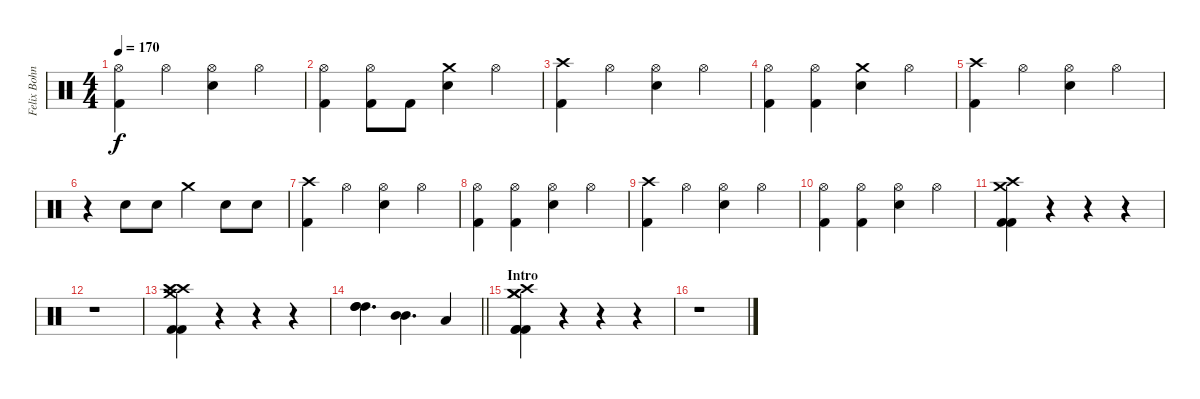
\track ("Felix Bohnke - Drums" "Felix Bohn") {instrument percussion}
\staff {score}
\articulation defaults
\ts (4 4)
\tempo 170
\clef neutral
\ks c
("Hi-Hat (open)" "Kick (hit) 2").4{dy f} "Hi-Hat (open)".4 ("Hi-Hat (open)" "Snare (hit) 2").4 "Hi-Hat (open)".4 |
("Hi-Hat (open)" "Kick (hit) 2").4 ("Hi-Hat (open)" "Kick (hit) 2").8 "Kick (hit) 2".8 ("Crash medium (hit)" "Snare (hit) 2").4 "Hi-Hat (open)".4 |
("Crash high (hit)" "Kick (hit) 2").4 "Hi-Hat (open)".4 ("Hi-Hat (open)" "Snare (hit) 2").4 "Hi-Hat (open)".4 |
("Hi-Hat (open)" "Kick (hit) 2").4 ("Hi-Hat (open)" "Kick (hit) 2").4 ("Crash medium (hit)" "Snare (hit) 2").4 "Hi-Hat (open)".4 |
("Crash high (hit)" "Kick (hit) 2").4 "Hi-Hat (open)".4 ("Hi-Hat (open)" "Snare (hit) 2").4 "Hi-Hat (open)".4 |
r.4 "Snare (hit) 2".8 "Snare (hit) 2".8 "Crash medium (hit)".4 "Snare (hit) 2".8 "Snare (hit) 2".8 |
("Crash high (hit)" "Kick (hit) 2").4 "Hi-Hat (open)".4 ("Hi-Hat (open)" "Snare (hit) 2").4 "Hi-Hat (open)".4 |
("Hi-Hat (open)" "Kick (hit) 2").4 ("Hi-Hat (open)" "Kick (hit) 2").4 ("Hi-Hat (open)" "Snare (hit) 2").4 "Hi-Hat (open)".4 |
("Crash high (hit)" "Kick (hit) 2").4 "Hi-Hat (open)".4 ("Hi-Hat (open)" "Snare (hit) 2").4 "Hi-Hat (open)".4 |
("Hi-Hat (open)" "Kick (hit) 2").4 ("Hi-Hat (open)" "Kick (hit) 2").4 ("Hi-Hat (open)" "Snare (hit) 2").4 "Hi-Hat (open)".4 |
("Crash high (hit)" "Crash medium (hit)" "Kick (hit) 2" "Kick (hit) 2").4 r.4 r.4 r.4 |
r.1 |
("Crash high (hit)" "Crash high (hit)" "Crash medium (hit)" "Kick (hit) 2" "Kick (hit) 2").4 r.4 r.4 r.4 |
\barLineRight lightlight
("High Tom (hit)" "High Tom (hit)" "High Tom (hit)").4{d} ("Mid Tom (hit)" "Mid Tom (hit)").4{d} "Low Tom (hit)".4 |
\section ("" "Intro")
("Crash high (hit)" "Crash medium (hit)" "Crash medium (hit)" "Kick (hit) 2" "Kick (hit) 2" "Kick (hit) 2").4 r.4 r.4 r.4 |
r.1
